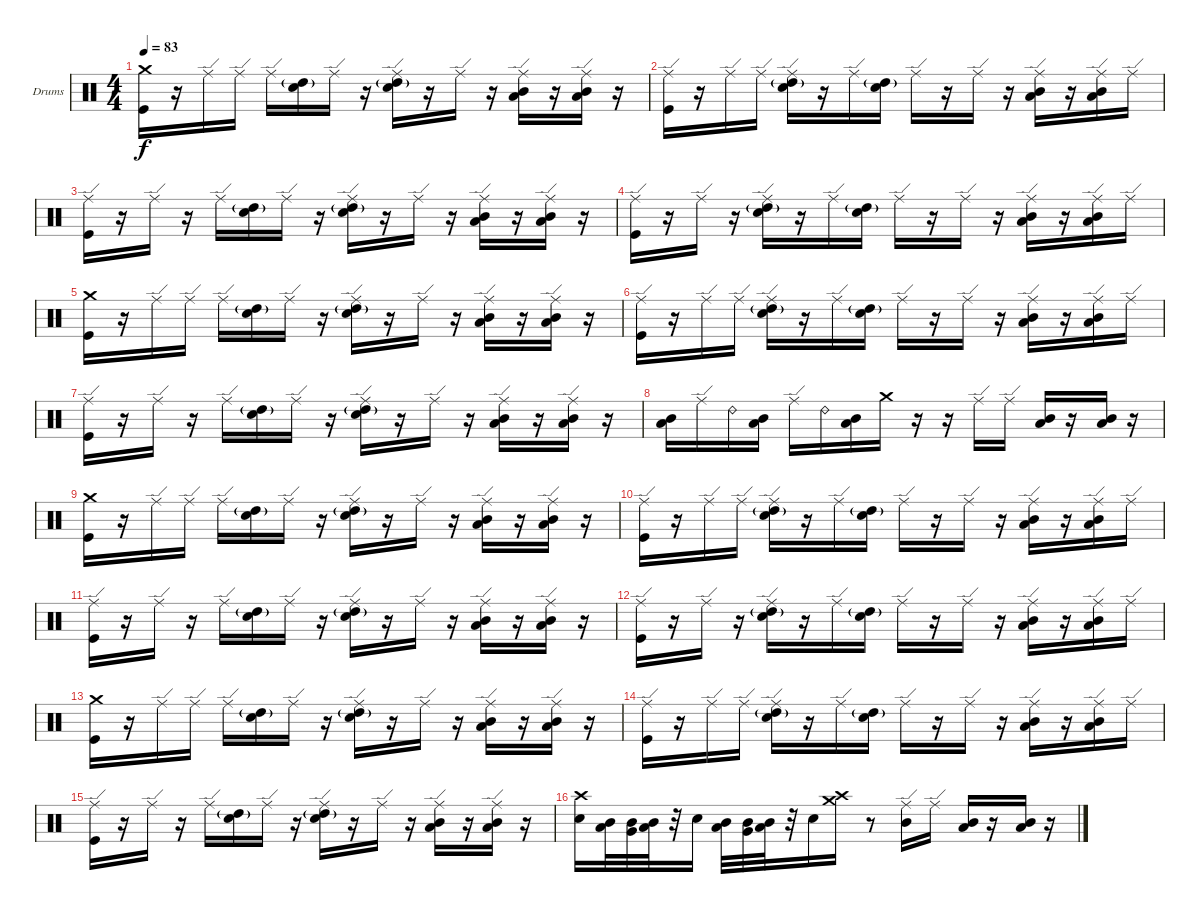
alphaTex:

\bracketExtendMode groupsimilarinstruments
\firstSystemTrackNameOrientation horizontal
\otherSystemsTrackNameOrientation horizontal
\track ("Drumkit" "Drums") {instrument percussion}
\staff {score}
\articulation defaults
\ts (4 4)
\tempo 83
\clef neutral
\ks c
("Crash medium (hit)" "Kick (hit)").16{dy f} r.16 "Ride (edge)".16 "Ride (edge)".16 "Ride (edge)".16 ("High Tom (hit)"{g} "Snare (hit) 2").16 "Ride (edge)".16 r.16 ("Ride (edge)" "High Tom (hit)"{g} "Snare (hit) 2").16 r.16 "Ride (edge)".16 r.16 ("Ride (edge)" "Low Tom (hit)" "Mid Tom (hit)").16 r.16 ("Ride (edge)" "Low Tom (hit)" "Mid Tom (hit)").16 r.16 |
("Ride (edge)" "Kick (hit)").16 r.16 "Ride (edge)".16 "Ride (edge)".16 ("Ride (edge)" "High Tom (hit)"{g} "Snare (hit) 2").16 r.16 "Ride (edge)".16 ("High Tom (hit)"{g} "Snare (hit) 2").16 "Ride (edge)".16 r.16 "Ride (edge)".16 r.16 ("Ride (edge)" "Low Tom (hit)" "Mid Tom (hit)").16 r.16 ("Ride (edge)" "Low Tom (hit)" "Mid Tom (hit)").16 "Ride (edge)".16 |
("Ride (edge)" "Kick (hit)").16 r.16 "Ride (edge)".16 r.16 "Ride (edge)".16 ("High Tom (hit)"{g} "Snare (hit) 2").16 "Ride (edge)".16 r.16 ("Ride (edge)" "High Tom (hit)"{g} "Snare (hit) 2").16 r.16 "Ride (edge)".16 r.16 ("Ride (edge)" "Low Tom (hit)" "Mid Tom (hit)").16 r.16 ("Ride (edge)" "Low Tom (hit)" "Mid Tom (hit)").16 r.16 |
("Ride (edge)" "Kick (hit)").16 r.16 "Ride (edge)".16 r.16 ("Ride (edge)" "High Tom (hit)"{g} "Snare (hit) 2").16 r.16 "Ride (edge)".16 ("High Tom (hit)"{g} "Snare (hit) 2").16 "Ride (edge)".16 r.16 "Ride (edge)".16 r.16 ("Ride (edge)" "Low Tom (hit)" "Mid Tom (hit)").16 r.16 ("Ride (edge)" "Low Tom (hit)" "Mid Tom (hit)").16 "Ride (edge)".16 |
("Crash medium (hit)" "Kick (hit)").16 r.16 "Ride (edge)".16 "Ride (edge)".16 "Ride (edge)".16 ("High Tom (hit)"{g} "Snare (hit) 2").16 "Ride (edge)".16 r.16 ("Ride (edge)" "High Tom (hit)"{g} "Snare (hit) 2").16 r.16 "Ride (edge)".16 r.16 ("Ride (edge)" "Low Tom (hit)" "Mid Tom (hit)").16 r.16 ("Ride (edge)" "Low Tom (hit)" "Mid Tom (hit)").16 r.16 |
("Ride (edge)" "Kick (hit)").16 r.16 "Ride (edge)".16 "Ride (edge)".16 ("Ride (edge)" "High Tom (hit)"{g} "Snare (hit) 2").16 r.16 "Ride (edge)".16 ("High Tom (hit)"{g} "Snare (hit) 2").16 "Ride (edge)".16 r.16 "Ride (edge)".16 r.16 ("Ride (edge)" "Low Tom (hit)" "Mid Tom (hit)").16 r.16 ("Ride (edge)" "Low Tom (hit)" "Mid Tom (hit)").16 "Ride (edge)".16 |
("Ride (edge)" "Kick (hit)").16 r.16 "Ride (edge)".16 r.16 "Ride (edge)".16 ("High Tom (hit)"{g} "Snare (hit) 2").16 "Ride (edge)".16 r.16 ("Ride (edge)" "High Tom (hit)"{g} "Snare (hit) 2").16 r.16 "Ride (edge)".16 r.16 ("Ride (edge)" "Low Tom (hit)" "Mid Tom (hit)").16 r.16 ("Ride (edge)" "Low Tom (hit)" "Mid Tom (hit)").16 r.16 |
("Low Tom (hit)" "Mid Tom (hit)").16 "Ride (edge)".16 "Ride (bell) 2".16 ("Low Tom (hit)" "Mid Tom (hit)").16 "Ride (edge)".16 "Ride (bell) 2".16 ("Low Tom (hit)" "Mid Tom (hit)").16 "Crash medium (hit)".16 r.16 r.16 "Ride (edge)".16 "Ride (edge)".16 ("Low Tom (hit)" "Mid Tom (hit)").16 r.16 ("Low Tom (hit)" "Mid Tom (hit)").16 r.16 |
("Crash medium (hit)" "Kick (hit)").16 r.16 "Ride (edge)".16 "Ride (edge)".16 "Ride (edge)".16 ("High Tom (hit)"{g} "Snare (hit) 2").16 "Ride (edge)".16 r.16 ("Ride (edge)" "High Tom (hit)"{g} "Snare (hit) 2").16 r.16 "Ride (edge)".16 r.16 ("Ride (edge)" "Low Tom (hit)" "Mid Tom (hit)").16 r.16 ("Ride (edge)" "Low Tom (hit)" "Mid Tom (hit)").16 r.16 |
("Ride (edge)" "Kick (hit)").16 r.16 "Ride (edge)".16 "Ride (edge)".16 ("Ride (edge)" "High Tom (hit)"{g} "Snare (hit) 2").16 r.16 "Ride (edge)".16 ("High Tom (hit)"{g} "Snare (hit) 2").16 "Ride (edge)".16 r.16 "Ride (edge)".16 r.16 ("Ride (edge)" "Low Tom (hit)" "Mid Tom (hit)").16 r.16 ("Ride (edge)" "Low Tom (hit)" "Mid Tom (hit)").16 "Ride (edge)".16 |
("Ride (edge)" "Kick (hit)").16 r.16 "Ride (edge)".16 r.16 "Ride (edge)".16 ("High Tom (hit)"{g} "Snare (hit) 2").16 "Ride (edge)".16 r.16 ("Ride (edge)" "High Tom (hit)"{g} "Snare (hit) 2").16 r.16 "Ride (edge)".16 r.16 ("Ride (edge)" "Low Tom (hit)" "Mid Tom (hit)").16 r.16 ("Ride (edge)" "Low Tom (hit)" "Mid Tom (hit)").16 r.16 |
("Ride (edge)" "Kick (hit)").16 r.16 "Ride (edge)".16 r.16 ("Ride (edge)" "High Tom (hit)"{g} "Snare (hit) 2").16 r.16 "Ride (edge)".16 ("High Tom (hit)"{g} "Snare (hit) 2").16 "Ride (edge)".16 r.16 "Ride (edge)".16 r.16 ("Ride (edge)" "Low Tom (hit)" "Mid Tom (hit)").16 r.16 ("Ride (edge)" "Low Tom (hit)" "Mid Tom (hit)").16 "Ride (edge)".16 |
("Crash medium (hit)" "Kick (hit)").16 r.16 "Ride (edge)".16 "Ride (edge)".16 "Ride (edge)".16 ("High Tom (hit)"{g} "Snare (hit) 2").16 "Ride (edge)".16 r.16 ("Ride (edge)" "High Tom (hit)"{g} "Snare (hit) 2").16 r.16 "Ride (edge)".16 r.16 ("Ride (edge)" "Low Tom (hit)" "Mid Tom (hit)").16 r.16 ("Ride (edge)" "Low Tom (hit)" "Mid Tom (hit)").16 r.16 |
("Ride (edge)" "Kick (hit)").16 r.16 "Ride (edge)".16 "Ride (edge)".16 ("Ride (edge)" "High Tom (hit)"{g} "Snare (hit) 2").16 r.16 "Ride (edge)".16 ("High Tom (hit)"{g} "Snare (hit) 2").16 "Ride (edge)".16 r.16 "Ride (edge)".16 r.16 ("Ride (edge)" "Low Tom (hit)" "Mid Tom (hit)").16 r.16 ("Ride (edge)" "Low Tom (hit)" "Mid Tom (hit)").16 "Ride (edge)".16 |
("Ride (edge)" "Kick (hit)").16 r.16 "Ride (edge)".16 r.16 "Ride (edge)".16 ("High Tom (hit)"{g} "Snare (hit) 2").16 "Ride (edge)".16 r.16 ("Ride (edge)" "High Tom (hit)"{g} "Snare (hit) 2").16 r.16 "Ride (edge)".16 r.16 ("Ride (edge)" "Low Tom (hit)" "Mid Tom (hit)").16 r.16 ("Ride (edge)" "Low Tom (hit)" "Mid Tom (hit)").16 r.16 |
("Crash high (hit)" "Snare (hit) 2").16 ("Mid Tom (hit)" "Low Tom (hit)").32 ("Mid Tom (hit)" "Very Low Tom (hit)").32 ("Mid Tom (hit)" "Low Tom (hit)").32 r.32 "Snare (hit) 2".16 ("Mid Tom (hit)" "Low Tom (hit)").32 ("Mid Tom (hit)" "Very Low Tom (hit)").32 ("Mid Tom (hit)" "Low Tom (hit)").32 r.32 "Snare (hit) 2".16 ("Crash medium (hit)" "Crash high (hit)").16 r.8 ("Ride (edge)" "Mid Tom (hit)").16 "Ride (edge)".16 ("Low Tom (hit)" "Mid Tom (hit)").16 r.16 ("Low Tom (hit)" "Mid Tom (hit)").16 r.16
